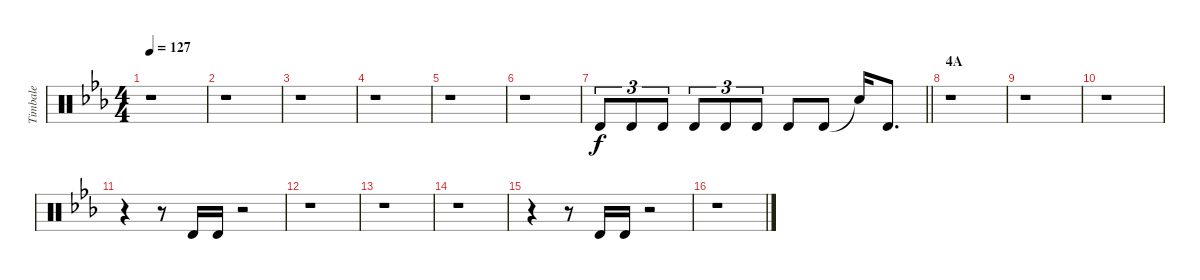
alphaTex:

\track ("Timbale" "Timbale") {instrument percussion}
\staff {score}
\articulation defaults
\ts (4 4)
\tempo 127
\clef neutral
\ks eb
r.1{dy f} |
r.1 |
r.1 |
r.1 |
r.1 |
r.1 |
\barLineRight lightlight "Timbale high (hit)".8{tu (3 2)} "Timbale high (hit)".8{tu (3 2)} "Timbale high (hit)".8{tu (3 2)} "Timbale high (hit)".8{tu (3 2)} "Timbale high (hit)".8{tu (3 2)} "Timbale high (hit)".8{tu (3 2)} "Timbale high (hit)".8 "Timbale high (hit)".8 "Snare (hit)"{t}.16 "Timbale high (hit)".8{d}
|
\section ("" "4A")
r.1 |
r.1 |
r.1 |
r.4 r.8 "Timbale high (hit)".16 "Timbale high (hit)".16 r.2 |
r.1 |
r.1 |
r.1 |
r.4 r.8 "Timbale high (hit)".16 "Timbale high (hit)".16 r.2 |
r.1
